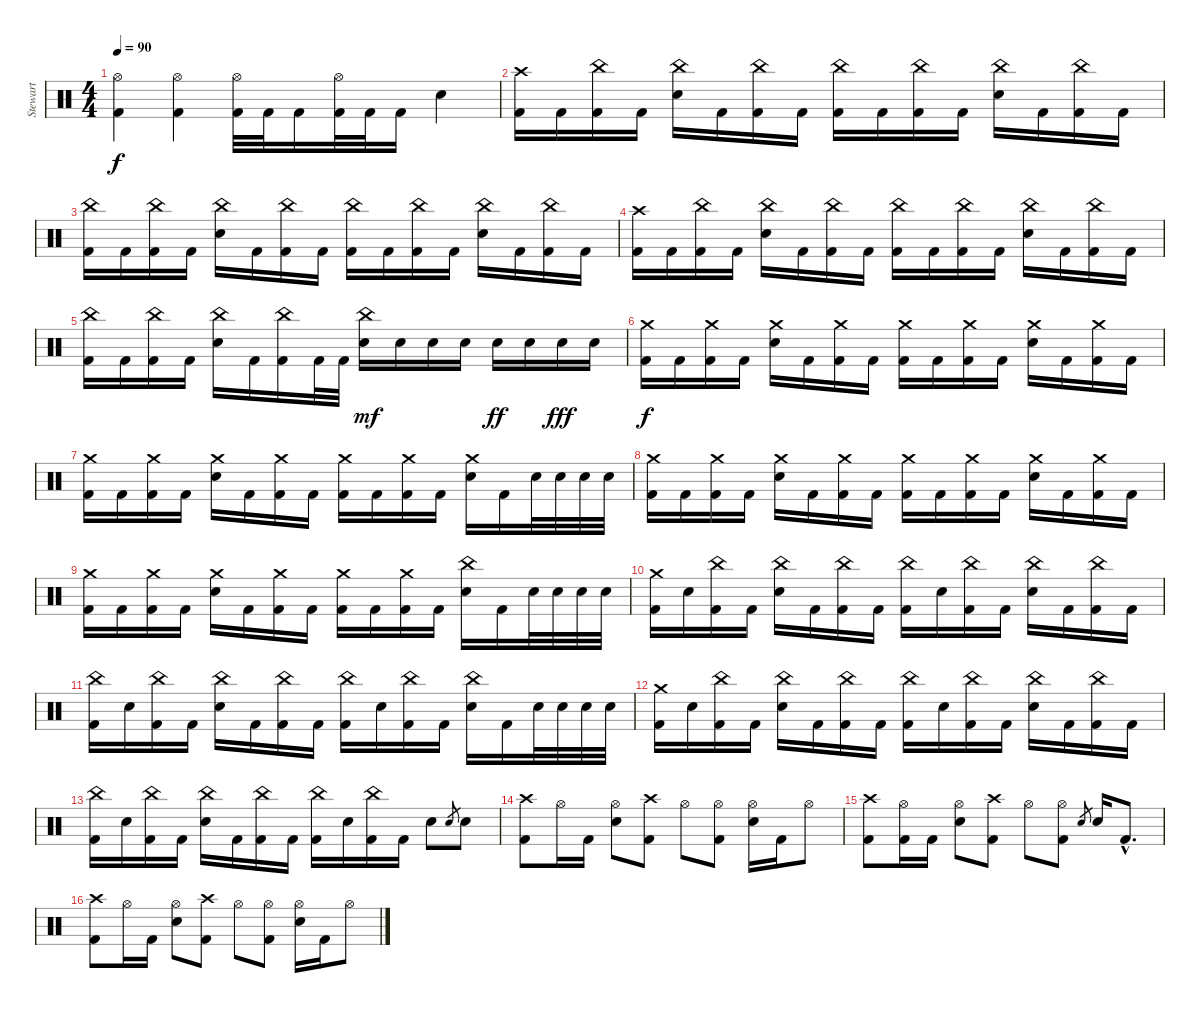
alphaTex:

\track ("Stewart" "Stewart") {instrument percussion}
\staff {score}
\articulation defaults
\ts (4 4)
\tempo 90
\clef neutral
\ks c
("Hi-Hat (open)" "Kick (hit) 2").4{dy f} ("Hi-Hat (open)" "Kick (hit) 2").4 ("Hi-Hat (open)" "Kick (hit) 2").32 "Kick (hit) 2".32 "Kick (hit) 2".16 ("Hi-Hat (open)" "Kick (hit) 2").32 "Kick (hit) 2".32 "Kick (hit) 2".16 "Electric Snare (hit)".4 |
("Crash high (hit)" "Kick (hit) 2").16 "Kick (hit) 2".16 ("China (hit)" "Kick (hit) 2").16 "Kick (hit) 2".16 ("China (hit)" "Electric Snare (hit)").16 "Kick (hit) 2".16 ("China (hit)" "Kick (hit) 2").16 "Kick (hit) 2".16 ("China (hit)" "Kick (hit) 2").16 "Kick (hit) 2".16 ("China (hit)" "Kick (hit) 2").16 "Kick (hit) 2".16 ("China (hit)" "Electric Snare (hit)").16 "Kick (hit) 2".16 ("China (hit)" "Kick (hit) 2").16 "Kick (hit) 2".16 |
("China (hit)" "Kick (hit) 2").16 "Kick (hit) 2".16 ("China (hit)" "Kick (hit) 2").16 "Kick (hit) 2".16 ("China (hit)" "Electric Snare (hit)").16 "Kick (hit) 2".16 ("China (hit)" "Kick (hit) 2").16 "Kick (hit) 2".16 ("China (hit)" "Kick (hit) 2").16 "Kick (hit) 2".16 ("China (hit)" "Kick (hit) 2").16 "Kick (hit) 2".16 ("China (hit)" "Electric Snare (hit)").16 "Kick (hit) 2".16 ("China (hit)" "Kick (hit) 2").16 "Kick (hit) 2".16 |
("Crash high (hit)" "Kick (hit) 2").16 "Kick (hit) 2".16 ("China (hit)" "Kick (hit) 2").16 "Kick (hit) 2".16 ("China (hit)" "Electric Snare (hit)").16 "Kick (hit) 2".16 ("China (hit)" "Kick (hit) 2").16 "Kick (hit) 2".16 ("China (hit)" "Kick (hit) 2").16 "Kick (hit) 2".16 ("China (hit)" "Kick (hit) 2").16 "Kick (hit) 2".16 ("China (hit)" "Electric Snare (hit)").16 "Kick (hit) 2".16 ("China (hit)" "Kick (hit) 2").16 "Kick (hit) 2".16 |
("China (hit)" "Kick (hit) 2").16 "Kick (hit) 2".16 ("China (hit)" "Kick (hit) 2").16 "Kick (hit) 2".16 ("China (hit)" "Electric Snare (hit)").16 "Kick (hit) 2".16 ("China (hit)" "Kick (hit) 2").16 "Kick (hit) 2".32 "Kick (hit) 2".32 ("China (hit)" "Electric Snare (hit)").16{dy mf} "Electric Snare (hit)".16 "Electric Snare (hit)".16 "Electric Snare (hit)".16 "Electric Snare (hit)".16{dy ff} "Electric Snare (hit)".16 "Electric Snare (hit)".16{dy fff} "Electric Snare (hit)".16 |
("Crash medium (hit)" "Kick (hit) 2").16{dy f} "Kick (hit) 2".16 ("Crash medium (hit)" "Kick (hit) 2").16 "Kick (hit) 2".16 ("Crash medium (hit)" "Electric Snare (hit)").16 "Kick (hit) 2".16 ("Crash medium (hit)" "Kick (hit) 2").16 "Kick (hit) 2".16 ("Crash medium (hit)" "Kick (hit) 2").16 "Kick (hit) 2".16 ("Crash medium (hit)" "Kick (hit) 2").16 "Kick (hit) 2".16 ("Crash medium (hit)" "Electric Snare (hit)").16 "Kick (hit) 2".16 ("Crash medium (hit)" "Kick (hit) 2").16 "Kick (hit) 2".16 |
("Crash medium (hit)" "Kick (hit) 2").16 "Kick (hit) 2".16 ("Crash medium (hit)" "Kick (hit) 2").16 "Kick (hit) 2".16 ("Crash medium (hit)" "Electric Snare (hit)").16 "Kick (hit) 2".16 ("Crash medium (hit)" "Kick (hit) 2").16 "Kick (hit) 2".16 ("Crash medium (hit)" "Kick (hit) 2").16 "Kick (hit) 2".16 ("Crash medium (hit)" "Kick (hit) 2").16 "Kick (hit) 2".16 ("Crash medium (hit)" "Electric Snare (hit)").16 "Kick (hit) 2".16 "Electric Snare (hit)".32 "Electric Snare (hit)".32 "Electric Snare (hit)".32 "Electric Snare (hit)".32 |
("Crash medium (hit)" "Kick (hit) 2").16 "Kick (hit) 2".16 ("Crash medium (hit)" "Kick (hit) 2").16 "Kick (hit) 2".16 ("Crash medium (hit)" "Electric Snare (hit)").16 "Kick (hit) 2".16 ("Crash medium (hit)" "Kick (hit) 2").16 "Kick (hit) 2".16 ("Crash medium (hit)" "Kick (hit) 2").16 "Kick (hit) 2".16 ("Crash medium (hit)" "Kick (hit) 2").16 "Kick (hit) 2".16 ("Crash medium (hit)" "Electric Snare (hit)").16 "Kick (hit) 2".16 ("Crash medium (hit)" "Kick (hit) 2").16 "Kick (hit) 2".16 |
("Crash medium (hit)" "Kick (hit) 2").16 "Kick (hit) 2".16 ("Crash medium (hit)" "Kick (hit) 2").16 "Kick (hit) 2".16 ("Crash medium (hit)" "Electric Snare (hit)").16 "Kick (hit) 2".16 ("Crash medium (hit)" "Kick (hit) 2").16 "Kick (hit) 2".16 ("Crash medium (hit)" "Kick (hit) 2").16 "Kick (hit) 2".16 ("Crash medium (hit)" "Kick (hit) 2").16 "Kick (hit) 2".16 ("China (hit)" "Electric Snare (hit)").16 "Kick (hit) 2".16 "Electric Snare (hit)".32 "Electric Snare (hit)".32 "Electric Snare (hit)".32 "Electric Snare (hit)".32 |
("Crash medium (hit)" "Kick (hit) 2").16 "Electric Snare (hit)".16 ("China (hit)" "Kick (hit) 2").16 "Kick (hit) 2".16 ("China (hit)" "Electric Snare (hit)").16 "Kick (hit) 2".16 ("China (hit)" "Kick (hit) 2").16 "Kick (hit) 2".16 ("China (hit)" "Kick (hit) 2").16 "Electric Snare (hit)".16 ("China (hit)" "Kick (hit) 2").16 "Kick (hit) 2".16 ("China (hit)" "Electric Snare (hit)").16 "Kick (hit) 2".16 ("China (hit)" "Kick (hit) 2").16 "Kick (hit) 2".16 |
("China (hit)" "Kick (hit) 2").16 "Electric Snare (hit)".16 ("China (hit)" "Kick (hit) 2").16 "Kick (hit) 2".16 ("China (hit)" "Electric Snare (hit)").16 "Kick (hit) 2".16 ("China (hit)" "Kick (hit) 2").16 "Kick (hit) 2".16 ("China (hit)" "Kick (hit) 2").16 "Electric Snare (hit)".16 ("China (hit)" "Kick (hit) 2").16 "Kick (hit) 2".16 ("China (hit)" "Electric Snare (hit)").16 "Kick (hit) 2".16 "Electric Snare (hit)".32 "Electric Snare (hit)".32 "Electric Snare (hit)".32 "Electric Snare (hit)".32 |
("Crash medium (hit)" "Kick (hit) 2").16 "Electric Snare (hit)".16 ("China (hit)" "Kick (hit) 2").16 "Kick (hit) 2".16 ("China (hit)" "Electric Snare (hit)").16 "Kick (hit) 2".16 ("China (hit)" "Kick (hit) 2").16 "Kick (hit) 2".16 ("China (hit)" "Kick (hit) 2").16 "Electric Snare (hit)".16 ("China (hit)" "Kick (hit) 2").16 "Kick (hit) 2".16 ("China (hit)" "Electric Snare (hit)").16 "Kick (hit) 2".16 ("China (hit)" "Kick (hit) 2").16 "Kick (hit) 2".16 |
("China (hit)" "Kick (hit) 2").16 "Electric Snare (hit)".16 ("China (hit)" "Kick (hit) 2").16 "Kick (hit) 2".16 ("China (hit)" "Electric Snare (hit)").16 "Kick (hit) 2".16 ("China (hit)" "Kick (hit) 2").16 "Kick (hit) 2".16 ("China (hit)" "Kick (hit) 2").16 "Electric Snare (hit)".16 ("China (hit)" "Kick (hit) 2").16 "Kick (hit) 2".16 "Electric Snare (hit)".8 "Electric Snare (hit)".8{gr} "Electric Snare (hit)".8 |
("Crash high (hit)" "Kick (hit) 2").8 "Hi-Hat (open)".16 "Kick (hit) 2".16 ("Hi-Hat (open)" "Electric Snare (hit)").8 ("Crash high (hit)" "Kick (hit) 2").8 "Hi-Hat (open)".8 ("Hi-Hat (open)" "Kick (hit) 2").8 ("Hi-Hat (open)" "Electric Snare (hit)").16 "Kick (hit) 2".16 "Hi-Hat (open)".8 |
("Crash high (hit)" "Kick (hit) 2").8 ("Hi-Hat (open)" "Kick (hit) 2").16 "Kick (hit) 2".16 ("Hi-Hat (open)" "Electric Snare (hit)").8 ("Crash high (hit)" "Kick (hit) 2").8 "Hi-Hat (open)".8 ("Hi-Hat (open)" "Kick (hit) 2").8 "Electric Snare (hit)".8{gr} "Electric Snare (hit)".16 "Kick (hit) 2"{hac}.8{d} |
("Crash high (hit)" "Kick (hit) 2").8 "Hi-Hat (open)".16 "Kick (hit) 2".16 ("Hi-Hat (open)" "Electric Snare (hit)").8 ("Crash high (hit)" "Kick (hit) 2").8 "Hi-Hat (open)".8 ("Hi-Hat (open)" "Kick (hit) 2").8 ("Hi-Hat (open)" "Electric Snare (hit)").16 "Kick (hit) 2".16 "Hi-Hat (open)".8
